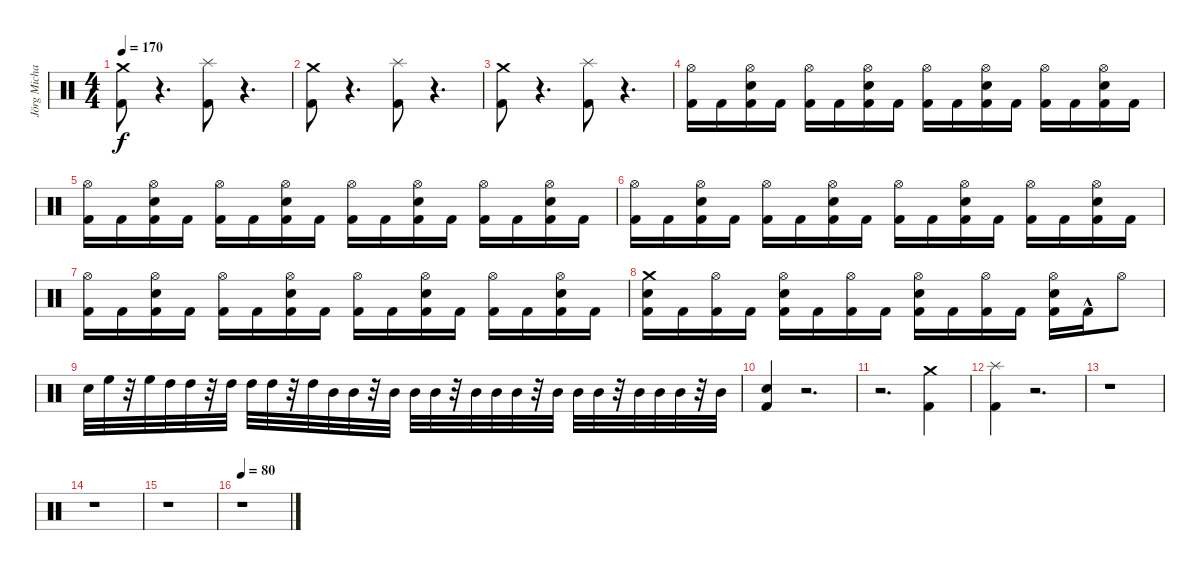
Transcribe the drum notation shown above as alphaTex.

\track ("Jörg Michael" "Jörg Micha") {instrument percussion}
\staff {score}
\articulation defaults
\ts (4 4)
\tempo 170
\clef neutral
\ks c
("Crash medium (hit)" "Kick (hit) 2").8{dy f} r.4{d} ("Splash (hit)" "Kick (hit) 2").8 r.4{d} |
("Crash medium (hit)" "Kick (hit) 2").8 r.4{d} ("Splash (hit)" "Kick (hit) 2").8 r.4{d} |
("Crash medium (hit)" "Kick (hit) 2").8 r.4{d} ("Splash (hit)" "Kick (hit) 2").8 r.4{d} |
("Kick (hit) 2" "Hi-Hat (open)").16 "Kick (hit) 2".16 ("Snare (hit) 2" "Kick (hit) 2" "Hi-Hat (open)").16 "Kick (hit) 2".16 ("Kick (hit) 2" "Hi-Hat (open)").16 "Kick (hit) 2".16 ("Snare (hit) 2" "Kick (hit) 2" "Hi-Hat (open)").16 "Kick (hit) 2".16 ("Kick (hit) 2" "Hi-Hat (open)").16 "Kick (hit) 2".16 ("Snare (hit) 2" "Kick (hit) 2" "Hi-Hat (open)").16 "Kick (hit) 2".16 ("Kick (hit) 2" "Hi-Hat (open)").16 "Kick (hit) 2".16 ("Snare (hit) 2" "Kick (hit) 2" "Hi-Hat (open)").16 "Kick (hit) 2".16 |
("Kick (hit) 2" "Hi-Hat (open)").16 "Kick (hit) 2".16 ("Snare (hit) 2" "Kick (hit) 2" "Hi-Hat (open)").16 "Kick (hit) 2".16 ("Kick (hit) 2" "Hi-Hat (open)").16 "Kick (hit) 2".16 ("Snare (hit) 2" "Kick (hit) 2" "Hi-Hat (open)").16 "Kick (hit) 2".16 ("Kick (hit) 2" "Hi-Hat (open)").16 "Kick (hit) 2".16 ("Snare (hit) 2" "Kick (hit) 2" "Hi-Hat (open)").16 "Kick (hit) 2".16 ("Kick (hit) 2" "Hi-Hat (open)").16 "Kick (hit) 2".16 ("Snare (hit) 2" "Kick (hit) 2" "Hi-Hat (open)").16 "Kick (hit) 2".16 |
("Kick (hit) 2" "Hi-Hat (open)").16 "Kick (hit) 2".16 ("Snare (hit) 2" "Kick (hit) 2" "Hi-Hat (open)").16 "Kick (hit) 2".16 ("Kick (hit) 2" "Hi-Hat (open)").16 "Kick (hit) 2".16 ("Snare (hit) 2" "Kick (hit) 2" "Hi-Hat (open)").16 "Kick (hit) 2".16 ("Kick (hit) 2" "Hi-Hat (open)").16 "Kick (hit) 2".16 ("Snare (hit) 2" "Kick (hit) 2" "Hi-Hat (open)").16 "Kick (hit) 2".16 ("Kick (hit) 2" "Hi-Hat (open)").16 "Kick (hit) 2".16 ("Snare (hit) 2" "Kick (hit) 2" "Hi-Hat (open)").16 "Kick (hit) 2".16 |
("Kick (hit) 2" "Hi-Hat (open)").16 "Kick (hit) 2".16 ("Snare (hit) 2" "Kick (hit) 2" "Hi-Hat (open)").16 "Kick (hit) 2".16 ("Kick (hit) 2" "Hi-Hat (open)").16 "Kick (hit) 2".16 ("Snare (hit) 2" "Kick (hit) 2" "Hi-Hat (open)").16 "Kick (hit) 2".16 ("Kick (hit) 2" "Hi-Hat (open)").16 "Kick (hit) 2".16 ("Snare (hit) 2" "Kick (hit) 2" "Hi-Hat (open)").16 "Kick (hit) 2".16 ("Kick (hit) 2" "Hi-Hat (open)").16 "Kick (hit) 2".16 ("Snare (hit) 2" "Kick (hit) 2" "Hi-Hat (open)").16 "Kick (hit) 2".16 |
("Kick (hit) 2" "Snare (hit) 2" "Crash medium (hit)").16 "Kick (hit) 2".16 ("Kick (hit) 2" "Hi-Hat (open)").16 "Kick (hit) 2".16 ("Kick (hit) 2" "Snare (hit) 2" "Hi-Hat (open)").16 "Kick (hit) 2".16 ("Kick (hit) 2" "Hi-Hat (open)").16 "Kick (hit) 2".16 ("Kick (hit) 2" "Snare (hit) 2" "Hi-Hat (open)").16 "Kick (hit) 2".16 ("Kick (hit) 2" "Hi-Hat (open)").16 "Kick (hit) 2".16 ("Kick (hit) 2" "Snare (hit) 2" "Hi-Hat (open)").16 "Kick (hit) 2"{hac}.16 "Hi-Hat (open)".8 |
"Snare (hit) 2".32 "High Floor Tom (hit)".32 r.32 "High Floor Tom (hit)".32 "High Tom (hit)".32 "High Tom (hit)".32 r.32 "High Tom (hit)".32 "High Tom (hit)".32 "High Tom (hit)".32 r.32 "High Tom (hit)".32 "Mid Tom (hit)".32 "Mid Tom (hit)".32 r.32 "Mid Tom (hit)".32 "Mid Tom (hit)".32 "Mid Tom (hit)".32 r.32 "Mid Tom (hit)".32 "Mid Tom (hit)".32 "Mid Tom (hit)".32 r.32 "Mid Tom (hit)".32 "Mid Tom (hit)".32 "Mid Tom (hit)".32 r.32 "Mid Tom (hit)".32 "Mid Tom (hit)".32 "Mid Tom (hit)".32 r.32 "Mid Tom (hit)".32 |
("Snare (hit) 2" "Kick (hit) 2").4 r.2{d} |
r.2{d} ("Crash medium (hit)" "Kick (hit) 2").4 |
("Splash (hit)" "Kick (hit) 2").4 r.2{d} |
r.1 |
r.1 |
r.1 |
\tempo 80
r.1
